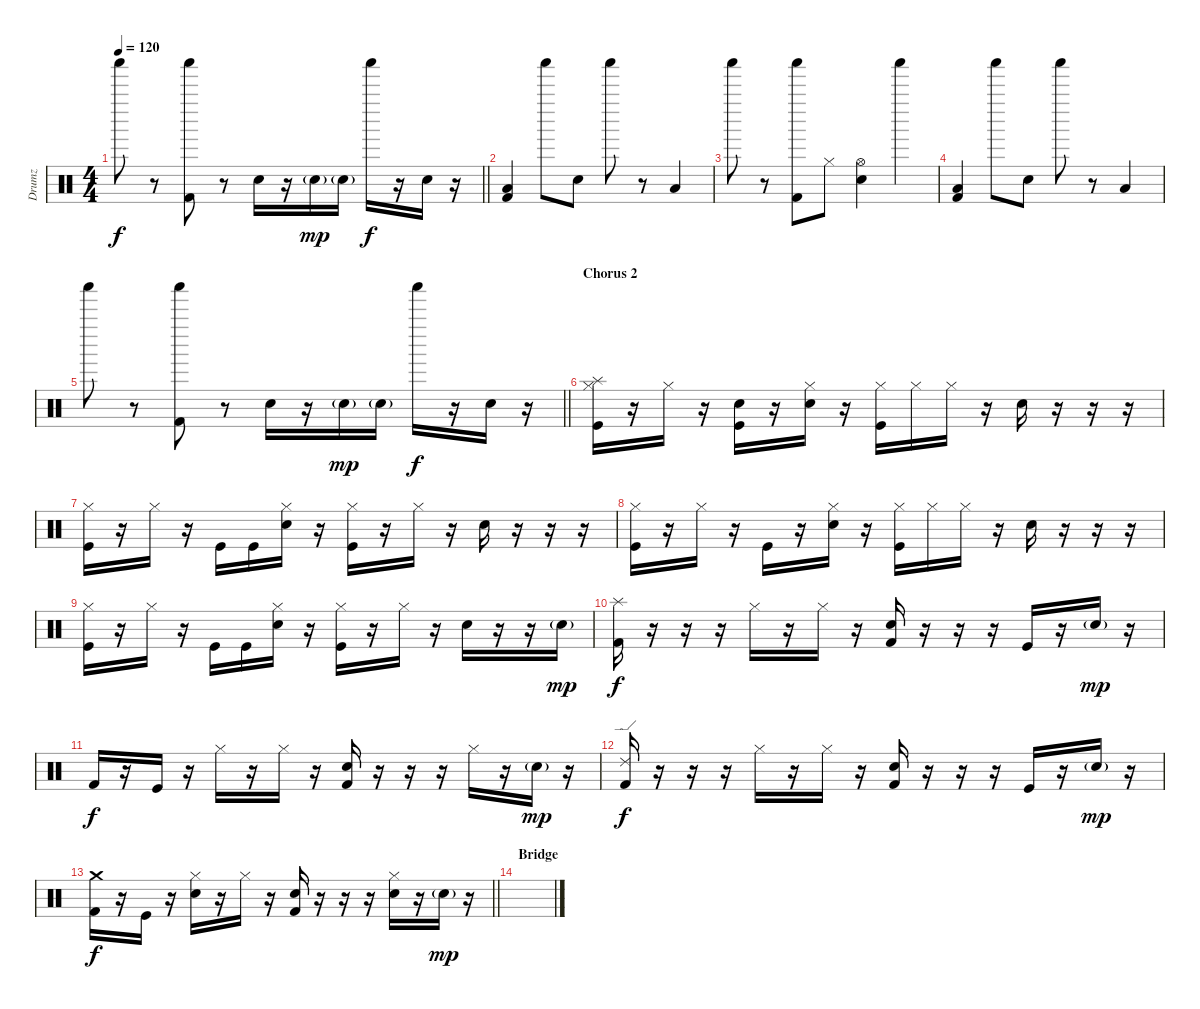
\track ("Drumz" "Drumz") {instrument percussion}
\staff {score}
\articulation defaults
\ts (4 4)
\tempo 120
\clef neutral
\barLineRight lightlight
\ks c "Shaker (hit)".8{dy f}
r.8 ("Kick (hit) 2" "Shaker (hit)").8 r.8 "Electric Snare (hit)".16 r.16 "Electric Snare (hit)"{g}.16{dy mp} "Electric Snare (hit)"{g}.16 "Shaker (hit)".16{dy f} r.16 "Electric Snare (hit)".16 r.16 |
("Low Tom (hit)" "Kick (hit) 2").4 "Shaker (hit)".8 "Electric Snare (hit)".8 "Shaker (hit)".8 r.8 "Low Tom (hit)".4 |
"Shaker (hit)".8 r.8 ("Kick (hit) 2" "Shaker (hit)").8 "Hi-Hat (closed)".8 ("Hi-Hat (open)" "Electric Snare (hit)").4 "Shaker (hit)".4 |
("Low Tom (hit)" "Kick (hit) 2").4 "Shaker (hit)".8 "Electric Snare (hit)".8 "Shaker (hit)".8 r.8 "Low Tom (hit)".4 |
\barLineRight lightlight "Shaker (hit)".8
r.8 ("Kick (hit) 2" "Shaker (hit)").8 r.8 "Electric Snare (hit)".16 r.16 "Electric Snare (hit)"{g}.16{dy mp} "Electric Snare (hit)"{g}.16 "Shaker (hit)".16{dy f} r.16 "Electric Snare (hit)".16 r.16 |
\section ("" "Chorus 2")
("Splash (hit)" "Hi-Hat (closed)" "Kick (hit)").16 r.16 "Hi-Hat (closed)".16 r.16 ("Electric Snare (hit)" "Kick (hit)").16 r.16 ("Hi-Hat (closed)" "Electric Snare (hit)").16 r.16 ("Hi-Hat (closed)" "Kick (hit)").16 "Hi-Hat (closed)".16 "Hi-Hat (closed)".16 r.16 "Electric Snare (hit)".16 r.16 r.16 r.16 |
("Hi-Hat (closed)" "Kick (hit)").16 r.16 "Hi-Hat (closed)".16 r.16 "Kick (hit)".16 "Kick (hit)".16 ("Hi-Hat (closed)" "Electric Snare (hit)").16 r.16 ("Hi-Hat (closed)" "Kick (hit)").16 r.16 "Hi-Hat (closed)".16 r.16 "Electric Snare (hit)".16 r.16 r.16 r.16 |
("Hi-Hat (closed)" "Kick (hit)").16 r.16 "Hi-Hat (closed)".16 r.16 "Kick (hit)".16 r.16 ("Hi-Hat (closed)" "Electric Snare (hit)").16 r.16 ("Hi-Hat (closed)" "Kick (hit)").16 "Hi-Hat (closed)".16 "Hi-Hat (closed)".16 r.16 "Electric Snare (hit)".16 r.16 r.16 r.16 |
("Hi-Hat (closed)" "Kick (hit)").16 r.16 "Hi-Hat (closed)".16 r.16 "Kick (hit)".16 "Kick (hit)".16 ("Hi-Hat (closed)" "Electric Snare (hit)").16 r.16 ("Hi-Hat (closed)" "Kick (hit)").16 r.16 "Hi-Hat (closed)".16 r.16 "Electric Snare (hit)".16 r.16 r.16 "Electric Snare (hit)"{g}.16{dy mp} |
("Splash (hit)" "Kick (hit) 2").16{dy f} r.16 r.16 r.16 "Hi-Hat (closed)".16 r.16 "Hi-Hat (closed)".16 r.16 ("Electric Snare (hit)" "Kick (hit) 2").16 r.16 r.16 r.16 "Kick (hit)".16 r.16 "Electric Snare (hit)"{g}.16{dy mp} r.16 |
"Kick (hit) 2".16{dy f} r.16 "Kick (hit)".16 r.16 "Hi-Hat (closed)".16 r.16 "Hi-Hat (closed)".16 r.16 ("Electric Snare (hit)" "Kick (hit) 2").16 r.16 r.16 r.16 "Hi-Hat (closed)".16 r.16 "Electric Snare (hit)"{g}.16{dy mp} r.16 |
("Ride (edge) 2" "Kick (hit) 2").16{dy f} r.16 r.16 r.16 "Hi-Hat (closed)".16 r.16 "Hi-Hat (closed)".16 r.16 ("Electric Snare (hit)" "Kick (hit) 2").16 r.16 r.16 r.16 "Kick (hit)".16 r.16 "Electric Snare (hit)"{g}.16{dy mp} r.16 |
\barLineRight lightlight
("Crash medium (hit)" "Kick (hit) 2").16{dy f} r.16 "Kick (hit)".16 r.16 ("Electric Snare (hit)" "Hi-Hat (closed)").16 r.16 "Hi-Hat (closed)".16 r.16 ("Electric Snare (hit)" "Kick (hit) 2").16 r.16 r.16 r.16 ("Electric Snare (hit)" "Hi-Hat (closed)").16 r.16 "Electric Snare (hit)"{g}.16{dy mp} r.16 |
\section ("" "Bridge")
